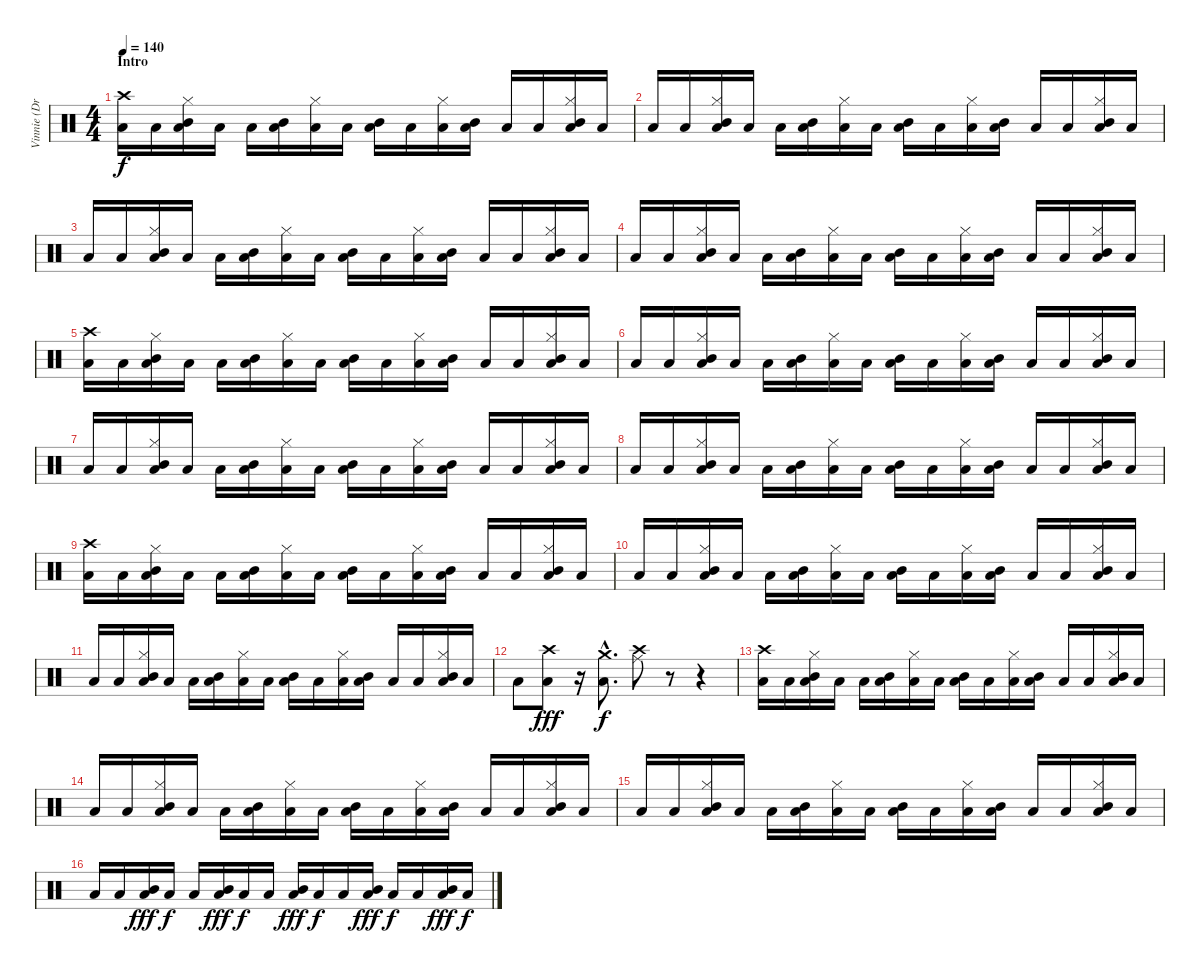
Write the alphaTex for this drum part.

\track ("Vinnie (Drums)" "Vinnie (Dr") {instrument percussion}
\staff {score}
\articulation defaults
\ts (4 4)
\section ("" "Intro")
\tempo 140
\clef neutral
\ks c
("Crash high (hit)" "Low Floor Tom (hit)").16{dy f} "Low Floor Tom (hit)".16 ("Hi-Hat (closed)" "Mid Tom (hit)" "Low Floor Tom (hit)").16 "Low Floor Tom (hit)".16 "Low Floor Tom (hit)".16 ("Mid Tom (hit)" "Low Floor Tom (hit)").16 ("Hi-Hat (closed)" "Low Floor Tom (hit)").16 "Low Floor Tom (hit)".16 ("Mid Tom (hit)" "Low Floor Tom (hit)").16 "Low Floor Tom (hit)".16 ("Hi-Hat (closed)" "Low Floor Tom (hit)").16 ("Mid Tom (hit)" "Low Floor Tom (hit)").16 "Low Floor Tom (hit)".16 "Low Floor Tom (hit)".16 ("Hi-Hat (closed)" "Mid Tom (hit)" "Low Floor Tom (hit)").16 "Low Floor Tom (hit)".16 |
"Low Floor Tom (hit)".16 "Low Floor Tom (hit)".16 ("Hi-Hat (closed)" "Mid Tom (hit)" "Low Floor Tom (hit)").16 "Low Floor Tom (hit)".16 "Low Floor Tom (hit)".16 ("Mid Tom (hit)" "Low Floor Tom (hit)").16 ("Hi-Hat (closed)" "Low Floor Tom (hit)").16 "Low Floor Tom (hit)".16 ("Mid Tom (hit)" "Low Floor Tom (hit)").16 "Low Floor Tom (hit)".16 ("Hi-Hat (closed)" "Low Floor Tom (hit)").16 ("Mid Tom (hit)" "Low Floor Tom (hit)").16 "Low Floor Tom (hit)".16 "Low Floor Tom (hit)".16 ("Hi-Hat (closed)" "Mid Tom (hit)" "Low Floor Tom (hit)").16 "Low Floor Tom (hit)".16 |
"Low Floor Tom (hit)".16 "Low Floor Tom (hit)".16 ("Hi-Hat (closed)" "Mid Tom (hit)" "Low Floor Tom (hit)").16 "Low Floor Tom (hit)".16 "Low Floor Tom (hit)".16 ("Mid Tom (hit)" "Low Floor Tom (hit)").16 ("Hi-Hat (closed)" "Low Floor Tom (hit)").16 "Low Floor Tom (hit)".16 ("Mid Tom (hit)" "Low Floor Tom (hit)").16 "Low Floor Tom (hit)".16 ("Hi-Hat (closed)" "Low Floor Tom (hit)").16 ("Mid Tom (hit)" "Low Floor Tom (hit)").16 "Low Floor Tom (hit)".16 "Low Floor Tom (hit)".16 ("Hi-Hat (closed)" "Mid Tom (hit)" "Low Floor Tom (hit)").16 "Low Floor Tom (hit)".16 |
"Low Floor Tom (hit)".16 "Low Floor Tom (hit)".16 ("Hi-Hat (closed)" "Mid Tom (hit)" "Low Floor Tom (hit)").16 "Low Floor Tom (hit)".16 "Low Floor Tom (hit)".16 ("Mid Tom (hit)" "Low Floor Tom (hit)").16 ("Hi-Hat (closed)" "Low Floor Tom (hit)").16 "Low Floor Tom (hit)".16 ("Mid Tom (hit)" "Low Floor Tom (hit)").16 "Low Floor Tom (hit)".16 ("Hi-Hat (closed)" "Low Floor Tom (hit)").16 ("Mid Tom (hit)" "Low Floor Tom (hit)").16 "Low Floor Tom (hit)".16 "Low Floor Tom (hit)".16 ("Hi-Hat (closed)" "Mid Tom (hit)" "Low Floor Tom (hit)").16 "Low Floor Tom (hit)".16 |
("Crash high (hit)" "Low Floor Tom (hit)").16 "Low Floor Tom (hit)".16 ("Hi-Hat (closed)" "Mid Tom (hit)" "Low Floor Tom (hit)").16 "Low Floor Tom (hit)".16 "Low Floor Tom (hit)".16 ("Mid Tom (hit)" "Low Floor Tom (hit)").16 ("Hi-Hat (closed)" "Low Floor Tom (hit)").16 "Low Floor Tom (hit)".16 ("Mid Tom (hit)" "Low Floor Tom (hit)").16 "Low Floor Tom (hit)".16 ("Hi-Hat (closed)" "Low Floor Tom (hit)").16 ("Mid Tom (hit)" "Low Floor Tom (hit)").16 "Low Floor Tom (hit)".16 "Low Floor Tom (hit)".16 ("Hi-Hat (closed)" "Mid Tom (hit)" "Low Floor Tom (hit)").16 "Low Floor Tom (hit)".16 |
"Low Floor Tom (hit)".16 "Low Floor Tom (hit)".16 ("Hi-Hat (closed)" "Mid Tom (hit)" "Low Floor Tom (hit)").16 "Low Floor Tom (hit)".16 "Low Floor Tom (hit)".16 ("Mid Tom (hit)" "Low Floor Tom (hit)").16 ("Hi-Hat (closed)" "Low Floor Tom (hit)").16 "Low Floor Tom (hit)".16 ("Mid Tom (hit)" "Low Floor Tom (hit)").16 "Low Floor Tom (hit)".16 ("Hi-Hat (closed)" "Low Floor Tom (hit)").16 ("Mid Tom (hit)" "Low Floor Tom (hit)").16 "Low Floor Tom (hit)".16 "Low Floor Tom (hit)".16 ("Hi-Hat (closed)" "Mid Tom (hit)" "Low Floor Tom (hit)").16 "Low Floor Tom (hit)".16 |
"Low Floor Tom (hit)".16 "Low Floor Tom (hit)".16 ("Hi-Hat (closed)" "Mid Tom (hit)" "Low Floor Tom (hit)").16 "Low Floor Tom (hit)".16 "Low Floor Tom (hit)".16 ("Mid Tom (hit)" "Low Floor Tom (hit)").16 ("Hi-Hat (closed)" "Low Floor Tom (hit)").16 "Low Floor Tom (hit)".16 ("Mid Tom (hit)" "Low Floor Tom (hit)").16 "Low Floor Tom (hit)".16 ("Hi-Hat (closed)" "Low Floor Tom (hit)").16 ("Mid Tom (hit)" "Low Floor Tom (hit)").16 "Low Floor Tom (hit)".16 "Low Floor Tom (hit)".16 ("Hi-Hat (closed)" "Mid Tom (hit)" "Low Floor Tom (hit)").16 "Low Floor Tom (hit)".16 |
"Low Floor Tom (hit)".16 "Low Floor Tom (hit)".16 ("Hi-Hat (closed)" "Mid Tom (hit)" "Low Floor Tom (hit)").16 "Low Floor Tom (hit)".16 "Low Floor Tom (hit)".16 ("Mid Tom (hit)" "Low Floor Tom (hit)").16 ("Hi-Hat (closed)" "Low Floor Tom (hit)").16 "Low Floor Tom (hit)".16 ("Mid Tom (hit)" "Low Floor Tom (hit)").16 "Low Floor Tom (hit)".16 ("Hi-Hat (closed)" "Low Floor Tom (hit)").16 ("Mid Tom (hit)" "Low Floor Tom (hit)").16 "Low Floor Tom (hit)".16 "Low Floor Tom (hit)".16 ("Hi-Hat (closed)" "Mid Tom (hit)" "Low Floor Tom (hit)").16 "Low Floor Tom (hit)".16 |
("Crash high (hit)" "Low Floor Tom (hit)").16 "Low Floor Tom (hit)".16 ("Hi-Hat (closed)" "Mid Tom (hit)" "Low Floor Tom (hit)").16 "Low Floor Tom (hit)".16 "Low Floor Tom (hit)".16 ("Mid Tom (hit)" "Low Floor Tom (hit)").16 ("Hi-Hat (closed)" "Low Floor Tom (hit)").16 "Low Floor Tom (hit)".16 ("Mid Tom (hit)" "Low Floor Tom (hit)").16 "Low Floor Tom (hit)".16 ("Hi-Hat (closed)" "Low Floor Tom (hit)").16 ("Mid Tom (hit)" "Low Floor Tom (hit)").16 "Low Floor Tom (hit)".16 "Low Floor Tom (hit)".16 ("Hi-Hat (closed)" "Mid Tom (hit)" "Low Floor Tom (hit)").16 "Low Floor Tom (hit)".16 |
"Low Floor Tom (hit)".16 "Low Floor Tom (hit)".16 ("Hi-Hat (closed)" "Mid Tom (hit)" "Low Floor Tom (hit)").16 "Low Floor Tom (hit)".16 "Low Floor Tom (hit)".16 ("Mid Tom (hit)" "Low Floor Tom (hit)").16 ("Hi-Hat (closed)" "Low Floor Tom (hit)").16 "Low Floor Tom (hit)".16 ("Mid Tom (hit)" "Low Floor Tom (hit)").16 "Low Floor Tom (hit)".16 ("Hi-Hat (closed)" "Low Floor Tom (hit)").16 ("Mid Tom (hit)" "Low Floor Tom (hit)").16 "Low Floor Tom (hit)".16 "Low Floor Tom (hit)".16 ("Hi-Hat (closed)" "Mid Tom (hit)" "Low Floor Tom (hit)").16 "Low Floor Tom (hit)".16 |
"Low Floor Tom (hit)".16 "Low Floor Tom (hit)".16 ("Hi-Hat (closed)" "Mid Tom (hit)" "Low Floor Tom (hit)").16 "Low Floor Tom (hit)".16 "Low Floor Tom (hit)".16 ("Mid Tom (hit)" "Low Floor Tom (hit)").16 ("Hi-Hat (closed)" "Low Floor Tom (hit)").16 "Low Floor Tom (hit)".16 ("Mid Tom (hit)" "Low Floor Tom (hit)").16 "Low Floor Tom (hit)".16 ("Hi-Hat (closed)" "Low Floor Tom (hit)").16 ("Mid Tom (hit)" "Low Floor Tom (hit)").16 "Low Floor Tom (hit)".16 "Low Floor Tom (hit)".16 ("Hi-Hat (closed)" "Mid Tom (hit)" "Low Floor Tom (hit)").16 "Low Floor Tom (hit)".16 |
"Low Floor Tom (hit)".8 ("Crash high (hit)" "Low Floor Tom (hit)").8{dy fff} r.16 ("Crash medium (hit)"{hac} "Low Floor Tom (hit)"{hac}).8{d dy f} ("Crash high (hit)" "Ride (middle)").8 r.8 r.4 |
("Crash high (hit)" "Low Floor Tom (hit)").16 "Low Floor Tom (hit)".16 ("Hi-Hat (closed)" "Mid Tom (hit)" "Low Floor Tom (hit)").16 "Low Floor Tom (hit)".16 "Low Floor Tom (hit)".16 ("Mid Tom (hit)" "Low Floor Tom (hit)").16 ("Hi-Hat (closed)" "Low Floor Tom (hit)").16 "Low Floor Tom (hit)".16 ("Mid Tom (hit)" "Low Floor Tom (hit)").16 "Low Floor Tom (hit)".16 ("Hi-Hat (closed)" "Low Floor Tom (hit)").16 ("Mid Tom (hit)" "Low Floor Tom (hit)").16 "Low Floor Tom (hit)".16 "Low Floor Tom (hit)".16 ("Hi-Hat (closed)" "Mid Tom (hit)" "Low Floor Tom (hit)").16 "Low Floor Tom (hit)".16 |
"Low Floor Tom (hit)".16 "Low Floor Tom (hit)".16 ("Hi-Hat (closed)" "Mid Tom (hit)" "Low Floor Tom (hit)").16 "Low Floor Tom (hit)".16 "Low Floor Tom (hit)".16 ("Mid Tom (hit)" "Low Floor Tom (hit)").16 ("Hi-Hat (closed)" "Low Floor Tom (hit)").16 "Low Floor Tom (hit)".16 ("Mid Tom (hit)" "Low Floor Tom (hit)").16 "Low Floor Tom (hit)".16 ("Hi-Hat (closed)" "Low Floor Tom (hit)").16 ("Mid Tom (hit)" "Low Floor Tom (hit)").16 "Low Floor Tom (hit)".16 "Low Floor Tom (hit)".16 ("Hi-Hat (closed)" "Mid Tom (hit)" "Low Floor Tom (hit)").16 "Low Floor Tom (hit)".16 |
"Low Floor Tom (hit)".16 "Low Floor Tom (hit)".16 ("Hi-Hat (closed)" "Mid Tom (hit)" "Low Floor Tom (hit)").16 "Low Floor Tom (hit)".16 "Low Floor Tom (hit)".16 ("Mid Tom (hit)" "Low Floor Tom (hit)").16 ("Hi-Hat (closed)" "Low Floor Tom (hit)").16 "Low Floor Tom (hit)".16 ("Mid Tom (hit)" "Low Floor Tom (hit)").16 "Low Floor Tom (hit)".16 ("Hi-Hat (closed)" "Low Floor Tom (hit)").16 ("Mid Tom (hit)" "Low Floor Tom (hit)").16 "Low Floor Tom (hit)".16 "Low Floor Tom (hit)".16 ("Hi-Hat (closed)" "Mid Tom (hit)" "Low Floor Tom (hit)").16 "Low Floor Tom (hit)".16 |
"Low Floor Tom (hit)".16 "Low Floor Tom (hit)".16 ("Mid Tom (hit)" "Low Floor Tom (hit)").16{dy fff} "Low Floor Tom (hit)".16{dy f} "Low Floor Tom (hit)".16 ("Mid Tom (hit)" "Low Floor Tom (hit)").16{dy fff} "Low Floor Tom (hit)".16{dy f} "Low Floor Tom (hit)".16 ("Mid Tom (hit)" "Low Floor Tom (hit)").16{dy fff} "Low Floor Tom (hit)".16{dy f} "Low Floor Tom (hit)".16 ("Mid Tom (hit)" "Low Floor Tom (hit)").16{dy fff} "Low Floor Tom (hit)".16{dy f} "Low Floor Tom (hit)".16 ("Mid Tom (hit)" "Low Floor Tom (hit)").16{dy fff} "Low Floor Tom (hit)".16{dy f}
